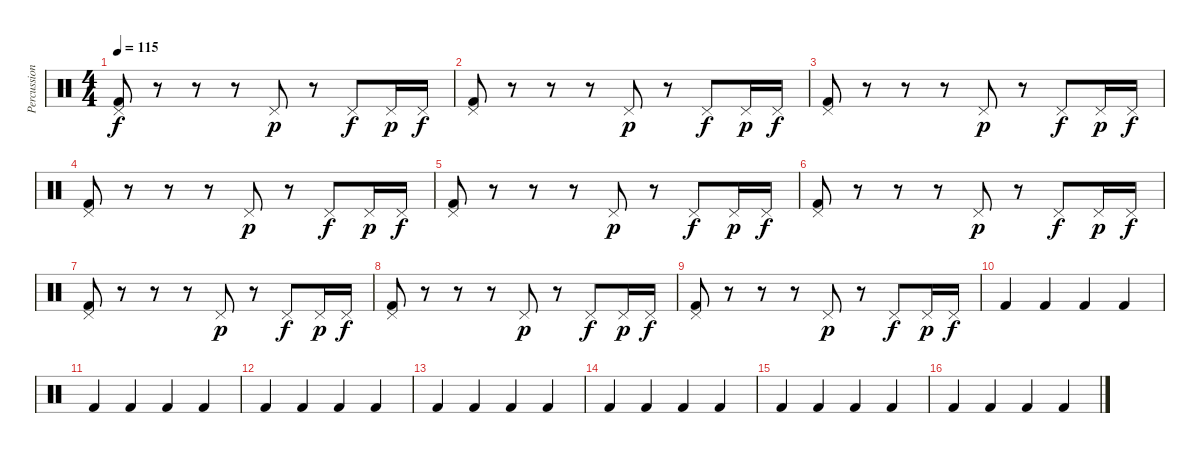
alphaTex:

\track ("Percussion - Drums" "Percussion") {instrument percussion}
\staff {score}
\articulation defaults
\ts (4 4)
\tempo 115
\clef neutral
\ks c
("Pedal Hi-Hat (hit)" "Kick (hit) 2").8{dy f} r.8 r.8 r.8 "Pedal Hi-Hat (hit)".8{dy p} r.8 "Pedal Hi-Hat (hit)".8{dy f} "Pedal Hi-Hat (hit)".16{dy p} "Pedal Hi-Hat (hit)".16{dy f} |
("Pedal Hi-Hat (hit)" "Kick (hit) 2").8 r.8 r.8 r.8 "Pedal Hi-Hat (hit)".8{dy p} r.8 "Pedal Hi-Hat (hit)".8{dy f} "Pedal Hi-Hat (hit)".16{dy p} "Pedal Hi-Hat (hit)".16{dy f} |
("Pedal Hi-Hat (hit)" "Kick (hit) 2").8 r.8 r.8 r.8 "Pedal Hi-Hat (hit)".8{dy p} r.8 "Pedal Hi-Hat (hit)".8{dy f} "Pedal Hi-Hat (hit)".16{dy p} "Pedal Hi-Hat (hit)".16{dy f} |
("Pedal Hi-Hat (hit)" "Kick (hit) 2").8 r.8 r.8 r.8 "Pedal Hi-Hat (hit)".8{dy p} r.8 "Pedal Hi-Hat (hit)".8{dy f} "Pedal Hi-Hat (hit)".16{dy p} "Pedal Hi-Hat (hit)".16{dy f} |
("Pedal Hi-Hat (hit)" "Kick (hit) 2").8 r.8 r.8 r.8 "Pedal Hi-Hat (hit)".8{dy p} r.8 "Pedal Hi-Hat (hit)".8{dy f} "Pedal Hi-Hat (hit)".16{dy p} "Pedal Hi-Hat (hit)".16{dy f} |
("Pedal Hi-Hat (hit)" "Kick (hit) 2").8 r.8 r.8 r.8 "Pedal Hi-Hat (hit)".8{dy p} r.8 "Pedal Hi-Hat (hit)".8{dy f} "Pedal Hi-Hat (hit)".16{dy p} "Pedal Hi-Hat (hit)".16{dy f} |
("Pedal Hi-Hat (hit)" "Kick (hit) 2").8 r.8 r.8 r.8 "Pedal Hi-Hat (hit)".8{dy p} r.8 "Pedal Hi-Hat (hit)".8{dy f} "Pedal Hi-Hat (hit)".16{dy p} "Pedal Hi-Hat (hit)".16{dy f} |
("Pedal Hi-Hat (hit)" "Kick (hit) 2").8 r.8 r.8 r.8 "Pedal Hi-Hat (hit)".8{dy p} r.8 "Pedal Hi-Hat (hit)".8{dy f} "Pedal Hi-Hat (hit)".16{dy p} "Pedal Hi-Hat (hit)".16{dy f} |
("Pedal Hi-Hat (hit)" "Kick (hit) 2").8 r.8 r.8 r.8 "Pedal Hi-Hat (hit)".8{dy p} r.8 "Pedal Hi-Hat (hit)".8{dy f} "Pedal Hi-Hat (hit)".16{dy p} "Pedal Hi-Hat (hit)".16{dy f} |
"Kick (hit) 2".4 "Kick (hit) 2".4 "Kick (hit) 2".4 "Kick (hit) 2".4 |
"Kick (hit) 2".4 "Kick (hit) 2".4 "Kick (hit) 2".4 "Kick (hit) 2".4 |
"Kick (hit) 2".4 "Kick (hit) 2".4 "Kick (hit) 2".4 "Kick (hit) 2".4 |
"Kick (hit) 2".4 "Kick (hit) 2".4 "Kick (hit) 2".4 "Kick (hit) 2".4 |
"Kick (hit) 2".4 "Kick (hit) 2".4 "Kick (hit) 2".4 "Kick (hit) 2".4 |
"Kick (hit) 2".4 "Kick (hit) 2".4 "Kick (hit) 2".4 "Kick (hit) 2".4 |
"Kick (hit) 2".4 "Kick (hit) 2".4 "Kick (hit) 2".4 "Kick (hit) 2".4
